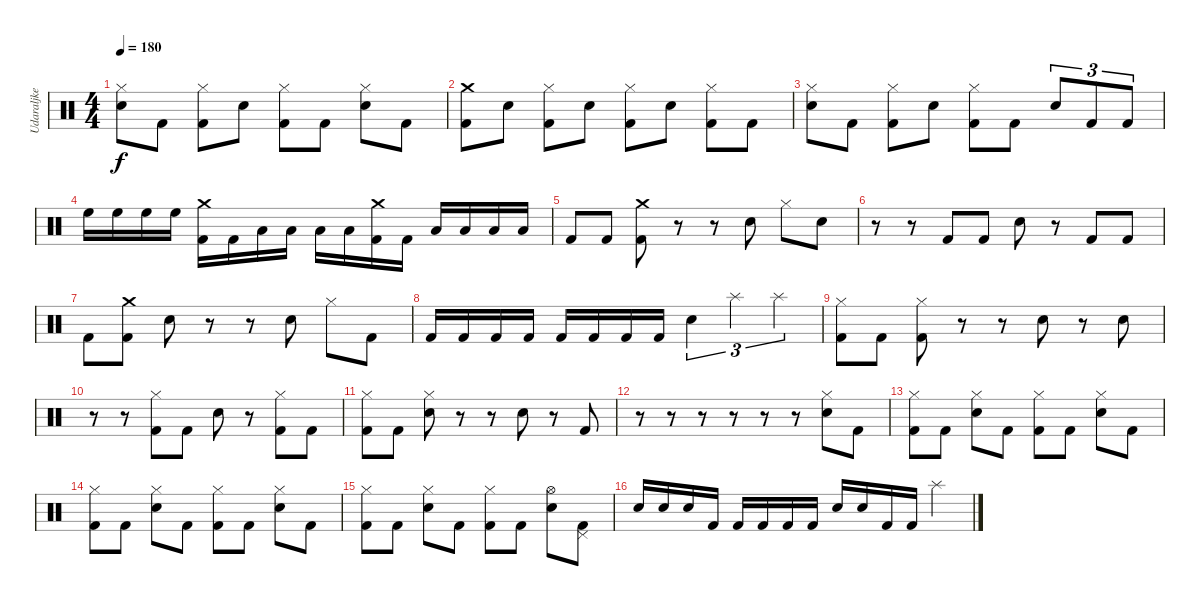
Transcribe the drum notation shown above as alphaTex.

\track ("Udaraljke" "Udaraljke") {instrument percussion}
\staff {score}
\articulation defaults
\ts (4 4)
\tempo 180
\clef neutral
\ks c
("Snare (hit) 2" "Hi-Hat (closed)").8{dy f} "Kick (hit) 2".8 ("Kick (hit) 2" "Hi-Hat (closed)").8 "Snare (hit) 2".8 ("Kick (hit) 2" "Hi-Hat (closed)").8 "Kick (hit) 2".8 ("Snare (hit) 2" "Hi-Hat (closed)").8 "Kick (hit) 2".8 |
("Kick (hit) 2" "Crash medium (hit)").8 "Snare (hit) 2".8 ("Kick (hit) 2" "Hi-Hat (closed)").8 "Snare (hit) 2".8 ("Kick (hit) 2" "Hi-Hat (closed)").8 "Snare (hit) 2".8 ("Kick (hit) 2" "Hi-Hat (closed)").8 "Kick (hit) 2".8 |
("Snare (hit) 2" "Hi-Hat (closed)").8 "Kick (hit) 2".8 ("Kick (hit) 2" "Hi-Hat (closed)").8 "Snare (hit) 2".8 ("Kick (hit) 2" "Hi-Hat (closed)").8 "Kick (hit) 2".8 "Snare (hit) 2".8{tu (3 2)} "Kick (hit) 2".8{tu (3 2)} "Kick (hit) 2".8{tu (3 2)} |
"High Floor Tom (hit)".16 "High Floor Tom (hit)".16 "High Floor Tom (hit)".16 "High Floor Tom (hit)".16 ("Kick (hit) 2" "Crash medium (hit)").16 "Kick (hit) 2".16 "Low Tom (hit)".16 "Low Tom (hit)".16 "Low Tom (hit)".16 "Low Tom (hit)".16 ("Kick (hit) 2" "Crash medium (hit)").16 "Kick (hit) 2".16 "Low Floor Tom (hit)".16 "Low Floor Tom (hit)".16 "Low Floor Tom (hit)".16 "Low Floor Tom (hit)".16 |
"Kick (hit) 2".8 "Kick (hit) 2".8 ("Kick (hit) 2" "Crash medium (hit)").8 r.8 r.8 "Snare (hit) 2".8 "Hi-Hat (closed)".8 "Snare (hit) 2".8 |
r.8 r.8 "Kick (hit) 2".8 "Kick (hit) 2".8 "Snare (hit) 2".8 r.8 "Kick (hit) 2".8 "Kick (hit) 2".8 |
"Kick (hit) 2".8 ("Kick (hit) 2" "Crash medium (hit)").8 "Snare (hit) 2".8 r.8 r.8 "Snare (hit) 2".8 "Hi-Hat (closed)".8 "Kick (hit) 2".8 |
"Kick (hit) 2".16 "Kick (hit) 2".16 "Kick (hit) 2".16 "Kick (hit) 2".16 "Kick (hit) 2".16 "Kick (hit) 2".16 "Kick (hit) 2".16 "Kick (hit) 2".16 "Snare (hit) 2".4{tu (3 2)} "Splash (hit)".4{tu (3 2)} "Splash (hit)".4{tu (3 2)} |
("Kick (hit) 2" "Hi-Hat (closed)").8 "Kick (hit) 2".8 ("Kick (hit) 2" "Hi-Hat (closed)").8 r.8 r.8 "Snare (hit) 2".8 r.8 "Snare (hit) 2".8 |
r.8 r.8 ("Kick (hit) 2" "Hi-Hat (closed)").8 "Kick (hit) 2".8 "Snare (hit) 2".8 r.8 ("Kick (hit) 2" "Hi-Hat (closed)").8 "Kick (hit) 2".8 |
("Kick (hit) 2" "Hi-Hat (closed)").8 "Kick (hit) 2".8 ("Snare (hit) 2" "Hi-Hat (closed)").8 r.8 r.8 "Snare (hit) 2".8 r.8 "Kick (hit) 2".8 |
r.8 r.8 r.8 r.8 r.8 r.8 ("Snare (hit) 2" "Hi-Hat (closed)").8 "Kick (hit) 2".8 |
("Kick (hit) 2" "Hi-Hat (closed)").8 "Kick (hit) 2".8 ("Snare (hit) 2" "Hi-Hat (closed)").8 "Kick (hit) 2".8 ("Kick (hit) 2" "Hi-Hat (closed)").8 "Kick (hit) 2".8 ("Snare (hit) 2" "Hi-Hat (closed)").8 "Kick (hit) 2".8 |
("Kick (hit) 2" "Hi-Hat (closed)").8 "Kick (hit) 2".8 ("Snare (hit) 2" "Hi-Hat (closed)").8 "Kick (hit) 2".8 ("Kick (hit) 2" "Hi-Hat (closed)").8 "Kick (hit) 2".8 ("Snare (hit) 2" "Hi-Hat (closed)").8 "Kick (hit) 2".8 |
("Kick (hit) 2" "Hi-Hat (closed)").8 "Kick (hit) 2".8 ("Snare (hit) 2" "Hi-Hat (closed)").8 "Kick (hit) 2".8 ("Kick (hit) 2" "Hi-Hat (closed)").8 "Kick (hit) 2".8 ("Snare (hit) 2" "Hi-Hat (open)").8 ("Kick (hit) 2" "Pedal Hi-Hat (hit)").8 |
"Snare (hit) 2".16 "Snare (hit) 2".16 "Snare (hit) 2".16 "Kick (hit) 2".16 "Kick (hit) 2".16 "Kick (hit) 2".16 "Kick (hit) 2".16 "Kick (hit) 2".16 "Snare (hit) 2".16 "Snare (hit) 2".16 "Kick (hit) 2".16 "Kick (hit) 2".16 "Splash (hit)".4
